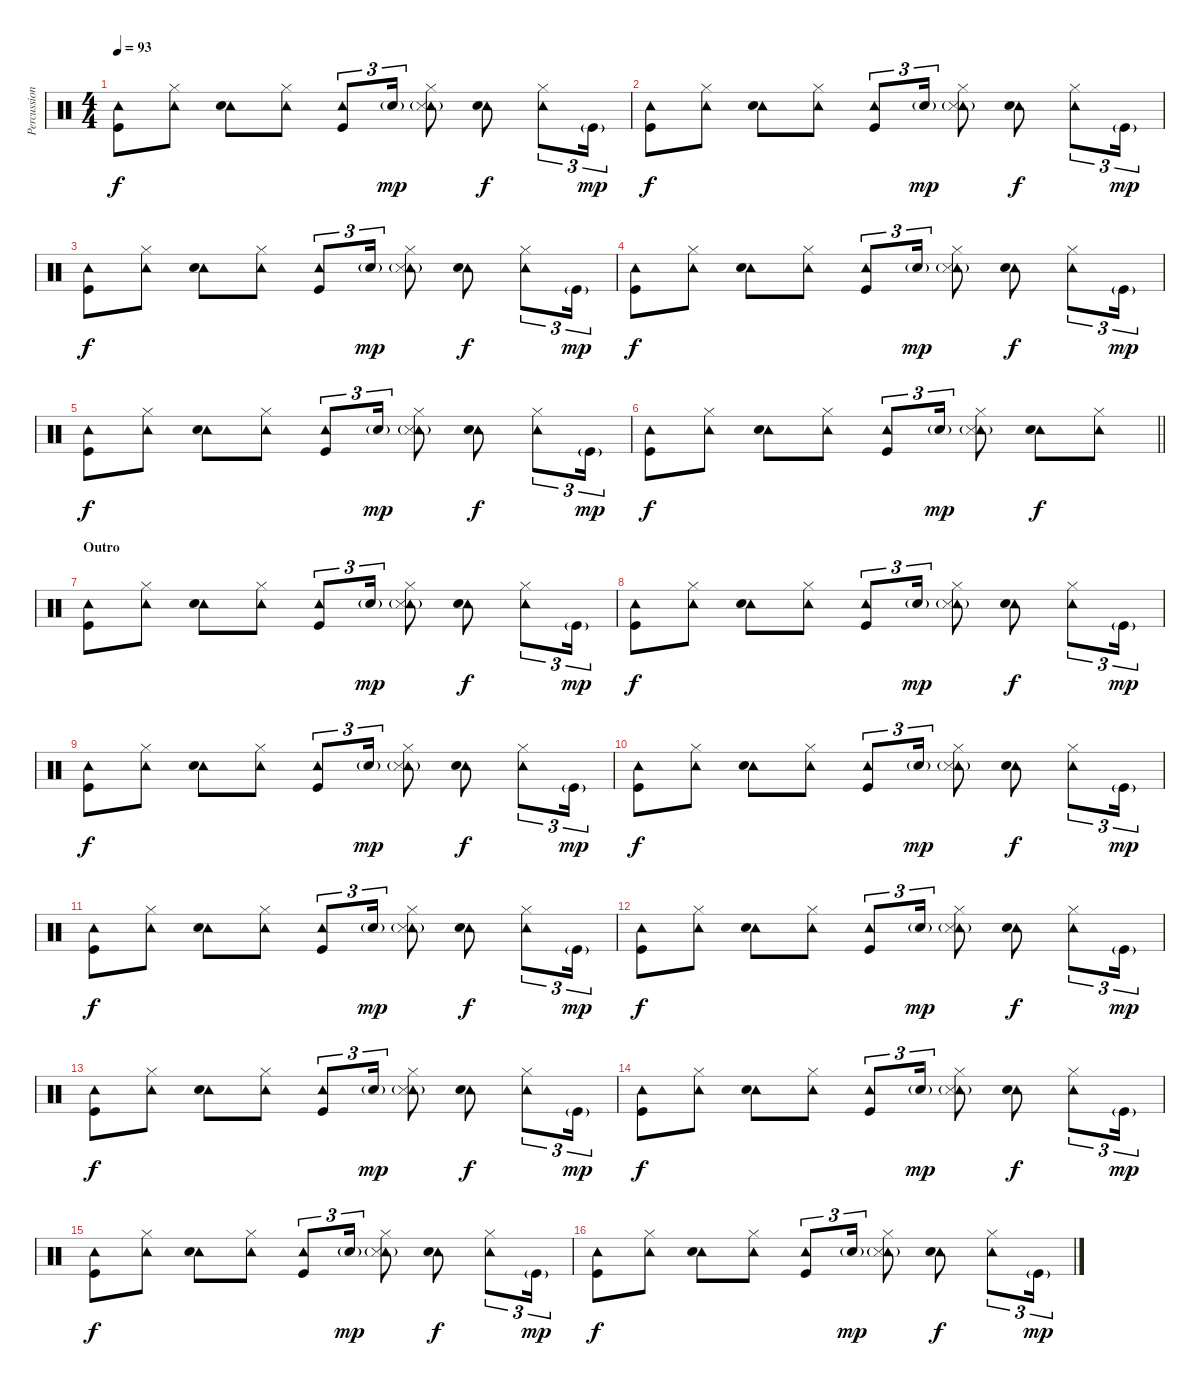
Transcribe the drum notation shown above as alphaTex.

\track ("Percussion" "Percussion") {instrument percussion}
\staff {score}
\articulation defaults
\ts (4 4)
\tempo 93
\clef neutral
\ks c
("Tambourine (hit)" "Kick (hit)").8{dy f} ("Tambourine (hit)" "Hi-Hat (closed)").8 ("Tambourine (hit)" "Electric Snare (hit)").8 ("Tambourine (hit)" "Hi-Hat (closed)").8 ("Tambourine (hit)" "Kick (hit)").8{tu (3 2)} "Electric Snare (hit)"{g}.16{tu (3 2) dy mp} ("Tambourine (hit)" "Hi-Hat (closed)" "Snare (side stick) 3"{g}).8 ("Tambourine (hit)" "Electric Snare (hit)").8{dy f} ("Tambourine (hit)" "Hi-Hat (closed)").8{tu (3 2)} "Kick (hit)"{g}.16{tu (3 2) dy mp} |
("Tambourine (hit)" "Kick (hit)").8{dy f} ("Tambourine (hit)" "Hi-Hat (closed)").8 ("Tambourine (hit)" "Electric Snare (hit)").8 ("Tambourine (hit)" "Hi-Hat (closed)").8 ("Tambourine (hit)" "Kick (hit)").8{tu (3 2)} "Electric Snare (hit)"{g}.16{tu (3 2) dy mp} ("Tambourine (hit)" "Hi-Hat (closed)" "Snare (side stick) 3"{g}).8 ("Tambourine (hit)" "Electric Snare (hit)").8{dy f} ("Tambourine (hit)" "Hi-Hat (closed)").8{tu (3 2)} "Kick (hit)"{g}.16{tu (3 2) dy mp} |
("Tambourine (hit)" "Kick (hit)").8{dy f} ("Tambourine (hit)" "Hi-Hat (closed)").8 ("Tambourine (hit)" "Electric Snare (hit)").8 ("Tambourine (hit)" "Hi-Hat (closed)").8 ("Tambourine (hit)" "Kick (hit)").8{tu (3 2)} "Electric Snare (hit)"{g}.16{tu (3 2) dy mp} ("Tambourine (hit)" "Hi-Hat (closed)" "Snare (side stick) 3"{g}).8 ("Tambourine (hit)" "Electric Snare (hit)").8{dy f} ("Tambourine (hit)" "Hi-Hat (closed)").8{tu (3 2)} "Kick (hit)"{g}.16{tu (3 2) dy mp} |
("Tambourine (hit)" "Kick (hit)").8{dy f} ("Tambourine (hit)" "Hi-Hat (closed)").8 ("Tambourine (hit)" "Electric Snare (hit)").8 ("Tambourine (hit)" "Hi-Hat (closed)").8 ("Tambourine (hit)" "Kick (hit)").8{tu (3 2)} "Electric Snare (hit)"{g}.16{tu (3 2) dy mp} ("Tambourine (hit)" "Hi-Hat (closed)" "Snare (side stick) 3"{g}).8 ("Tambourine (hit)" "Electric Snare (hit)").8{dy f} ("Tambourine (hit)" "Hi-Hat (closed)").8{tu (3 2)} "Kick (hit)"{g}.16{tu (3 2) dy mp} |
("Tambourine (hit)" "Kick (hit)").8{dy f} ("Tambourine (hit)" "Hi-Hat (closed)").8 ("Tambourine (hit)" "Electric Snare (hit)").8 ("Tambourine (hit)" "Hi-Hat (closed)").8 ("Tambourine (hit)" "Kick (hit)").8{tu (3 2)} "Electric Snare (hit)"{g}.16{tu (3 2) dy mp} ("Tambourine (hit)" "Hi-Hat (closed)" "Snare (side stick) 3"{g}).8 ("Tambourine (hit)" "Electric Snare (hit)").8{dy f} ("Tambourine (hit)" "Hi-Hat (closed)").8{tu (3 2)} "Kick (hit)"{g}.16{tu (3 2) dy mp} |
\barLineRight lightlight
("Tambourine (hit)" "Kick (hit)").8{dy f} ("Tambourine (hit)" "Hi-Hat (closed)").8 ("Tambourine (hit)" "Electric Snare (hit)").8 ("Tambourine (hit)" "Hi-Hat (closed)").8 ("Tambourine (hit)" "Kick (hit)").8{tu (3 2)} "Electric Snare (hit)"{g}.16{tu (3 2) dy mp} ("Tambourine (hit)" "Hi-Hat (closed)" "Snare (side stick) 3"{g}).8 ("Tambourine (hit)" "Electric Snare (hit)").8{dy f} ("Tambourine (hit)" "Hi-Hat (closed)").8 |
\section ("" "Outro")
("Tambourine (hit)" "Kick (hit)").8 ("Tambourine (hit)" "Hi-Hat (closed)").8 ("Tambourine (hit)" "Electric Snare (hit)").8 ("Tambourine (hit)" "Hi-Hat (closed)").8 ("Tambourine (hit)" "Kick (hit)").8{tu (3 2)} "Electric Snare (hit)"{g}.16{tu (3 2) dy mp} ("Tambourine (hit)" "Hi-Hat (closed)" "Snare (side stick) 3"{g}).8 ("Tambourine (hit)" "Electric Snare (hit)").8{dy f} ("Tambourine (hit)" "Hi-Hat (closed)").8{tu (3 2)} "Kick (hit)"{g}.16{tu (3 2) dy mp} |
("Tambourine (hit)" "Kick (hit)").8{dy f} ("Tambourine (hit)" "Hi-Hat (closed)").8 ("Tambourine (hit)" "Electric Snare (hit)").8 ("Tambourine (hit)" "Hi-Hat (closed)").8 ("Tambourine (hit)" "Kick (hit)").8{tu (3 2)} "Electric Snare (hit)"{g}.16{tu (3 2) dy mp} ("Tambourine (hit)" "Hi-Hat (closed)" "Snare (side stick) 3"{g}).8 ("Tambourine (hit)" "Electric Snare (hit)").8{dy f} ("Tambourine (hit)" "Hi-Hat (closed)").8{tu (3 2)} "Kick (hit)"{g}.16{tu (3 2) dy mp} |
("Tambourine (hit)" "Kick (hit)").8{dy f} ("Tambourine (hit)" "Hi-Hat (closed)").8 ("Tambourine (hit)" "Electric Snare (hit)").8 ("Tambourine (hit)" "Hi-Hat (closed)").8 ("Tambourine (hit)" "Kick (hit)").8{tu (3 2)} "Electric Snare (hit)"{g}.16{tu (3 2) dy mp} ("Tambourine (hit)" "Hi-Hat (closed)" "Snare (side stick) 3"{g}).8 ("Tambourine (hit)" "Electric Snare (hit)").8{dy f} ("Tambourine (hit)" "Hi-Hat (closed)").8{tu (3 2)} "Kick (hit)"{g}.16{tu (3 2) dy mp} |
("Tambourine (hit)" "Kick (hit)").8{dy f} ("Tambourine (hit)" "Hi-Hat (closed)").8 ("Tambourine (hit)" "Electric Snare (hit)").8 ("Tambourine (hit)" "Hi-Hat (closed)").8 ("Tambourine (hit)" "Kick (hit)").8{tu (3 2)} "Electric Snare (hit)"{g}.16{tu (3 2) dy mp} ("Tambourine (hit)" "Hi-Hat (closed)" "Snare (side stick) 3"{g}).8 ("Tambourine (hit)" "Electric Snare (hit)").8{dy f} ("Tambourine (hit)" "Hi-Hat (closed)").8{tu (3 2)} "Kick (hit)"{g}.16{tu (3 2) dy mp} |
("Tambourine (hit)" "Kick (hit)").8{dy f} ("Tambourine (hit)" "Hi-Hat (closed)").8 ("Tambourine (hit)" "Electric Snare (hit)").8 ("Tambourine (hit)" "Hi-Hat (closed)").8 ("Tambourine (hit)" "Kick (hit)").8{tu (3 2)} "Electric Snare (hit)"{g}.16{tu (3 2) dy mp} ("Tambourine (hit)" "Hi-Hat (closed)" "Snare (side stick) 3"{g}).8 ("Tambourine (hit)" "Electric Snare (hit)").8{dy f} ("Tambourine (hit)" "Hi-Hat (closed)").8{tu (3 2)} "Kick (hit)"{g}.16{tu (3 2) dy mp} |
("Tambourine (hit)" "Kick (hit)").8{dy f} ("Tambourine (hit)" "Hi-Hat (closed)").8 ("Tambourine (hit)" "Electric Snare (hit)").8 ("Tambourine (hit)" "Hi-Hat (closed)").8 ("Tambourine (hit)" "Kick (hit)").8{tu (3 2)} "Electric Snare (hit)"{g}.16{tu (3 2) dy mp} ("Tambourine (hit)" "Hi-Hat (closed)" "Snare (side stick) 3"{g}).8 ("Tambourine (hit)" "Electric Snare (hit)").8{dy f} ("Tambourine (hit)" "Hi-Hat (closed)").8{tu (3 2)} "Kick (hit)"{g}.16{tu (3 2) dy mp} |
("Tambourine (hit)" "Kick (hit)").8{dy f} ("Tambourine (hit)" "Hi-Hat (closed)").8 ("Tambourine (hit)" "Electric Snare (hit)").8 ("Tambourine (hit)" "Hi-Hat (closed)").8 ("Tambourine (hit)" "Kick (hit)").8{tu (3 2)} "Electric Snare (hit)"{g}.16{tu (3 2) dy mp} ("Tambourine (hit)" "Hi-Hat (closed)" "Snare (side stick) 3"{g}).8 ("Tambourine (hit)" "Electric Snare (hit)").8{dy f} ("Tambourine (hit)" "Hi-Hat (closed)").8{tu (3 2)} "Kick (hit)"{g}.16{tu (3 2) dy mp} |
("Tambourine (hit)" "Kick (hit)").8{dy f} ("Tambourine (hit)" "Hi-Hat (closed)").8 ("Tambourine (hit)" "Electric Snare (hit)").8 ("Tambourine (hit)" "Hi-Hat (closed)").8 ("Tambourine (hit)" "Kick (hit)").8{tu (3 2)} "Electric Snare (hit)"{g}.16{tu (3 2) dy mp} ("Tambourine (hit)" "Hi-Hat (closed)" "Snare (side stick) 3"{g}).8 ("Tambourine (hit)" "Electric Snare (hit)").8{dy f} ("Tambourine (hit)" "Hi-Hat (closed)").8{tu (3 2)} "Kick (hit)"{g}.16{tu (3 2) dy mp} |
("Tambourine (hit)" "Kick (hit)").8{dy f} ("Tambourine (hit)" "Hi-Hat (closed)").8 ("Tambourine (hit)" "Electric Snare (hit)").8 ("Tambourine (hit)" "Hi-Hat (closed)").8 ("Tambourine (hit)" "Kick (hit)").8{tu (3 2)} "Electric Snare (hit)"{g}.16{tu (3 2) dy mp} ("Tambourine (hit)" "Hi-Hat (closed)" "Snare (side stick) 3"{g}).8 ("Tambourine (hit)" "Electric Snare (hit)").8{dy f} ("Tambourine (hit)" "Hi-Hat (closed)").8{tu (3 2)} "Kick (hit)"{g}.16{tu (3 2) dy mp} |
("Tambourine (hit)" "Kick (hit)").8{dy f} ("Tambourine (hit)" "Hi-Hat (closed)").8 ("Tambourine (hit)" "Electric Snare (hit)").8 ("Tambourine (hit)" "Hi-Hat (closed)").8 ("Tambourine (hit)" "Kick (hit)").8{tu (3 2)} "Electric Snare (hit)"{g}.16{tu (3 2) dy mp} ("Tambourine (hit)" "Hi-Hat (closed)" "Snare (side stick) 3"{g}).8 ("Tambourine (hit)" "Electric Snare (hit)").8{dy f} ("Tambourine (hit)" "Hi-Hat (closed)").8{tu (3 2)} "Kick (hit)"{g}.16{tu (3 2) dy mp}
